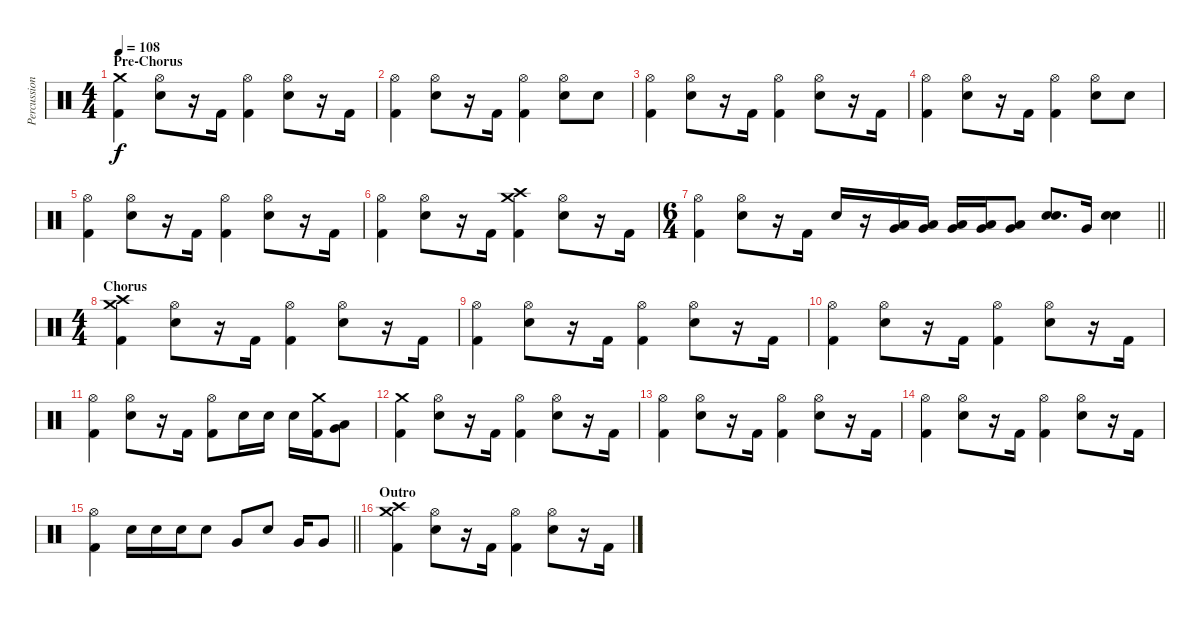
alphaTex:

\track ("Percussion" "Percussion") {instrument percussion}
\staff {score}
\articulation defaults
\ts (4 4)
\section ("" "Pre-Chorus")
\tempo 108
\clef neutral
\ks c
("Kick (hit) 2" "Crash medium (hit)").4{dy f} ("Hi-Hat (open)" "Snare (hit) 2").8 r.16 "Kick (hit) 2".16 ("Hi-Hat (open)" "Kick (hit) 2").4 ("Hi-Hat (open)" "Snare (hit) 2").8 r.16 "Kick (hit) 2".16 |
("Hi-Hat (open)" "Kick (hit) 2").4 ("Hi-Hat (open)" "Snare (hit) 2").8 r.16 "Kick (hit) 2".16 ("Hi-Hat (open)" "Kick (hit) 2").4 ("Hi-Hat (open)" "Snare (hit) 2").8 "Snare (hit) 2".8 |
("Hi-Hat (open)" "Kick (hit) 2").4 ("Hi-Hat (open)" "Snare (hit) 2").8 r.16 "Kick (hit) 2".16 ("Hi-Hat (open)" "Kick (hit) 2").4 ("Hi-Hat (open)" "Snare (hit) 2").8 r.16 "Kick (hit) 2".16 |
("Hi-Hat (open)" "Kick (hit) 2").4 ("Hi-Hat (open)" "Snare (hit) 2").8 r.16 "Kick (hit) 2".16 ("Hi-Hat (open)" "Kick (hit) 2").4 ("Hi-Hat (open)" "Snare (hit) 2").8 "Snare (hit) 2".8 |
("Hi-Hat (open)" "Kick (hit) 2").4 ("Hi-Hat (open)" "Snare (hit) 2").8 r.16 "Kick (hit) 2".16 ("Hi-Hat (open)" "Kick (hit) 2").4 ("Hi-Hat (open)" "Snare (hit) 2").8 r.16 "Kick (hit) 2".16 |
("Hi-Hat (open)" "Kick (hit) 2").4 ("Hi-Hat (open)" "Snare (hit) 2").8 r.16 "Kick (hit) 2".16 ("Kick (hit) 2" "Crash high (hit)" "Crash medium (hit)").4 ("Hi-Hat (open)" "Snare (hit) 2").8 r.16 "Kick (hit) 2".16 |
\ts (6 4)
\barLineRight lightlight
("Hi-Hat (open)" "Kick (hit) 2").4 ("Hi-Hat (open)" "Snare (hit) 2").8 r.16 "Kick (hit) 2".16 "Snare (hit) 2".16 r.16 ("Low Tom (hit)" "Very Low Tom (hit)").16 ("Low Tom (hit)" "Very Low Tom (hit)").16 ("Low Tom (hit)" "Very Low Tom (hit)").16 ("Low Tom (hit)" "Very Low Tom (hit)").16 ("Low Tom (hit)" "Very Low Tom (hit)").8 ("Snare (hit) 2" "Snare (hit) 2").8{d} "Very Low Tom (hit)".16 ("Snare (hit) 2" "Snare (hit) 2").4 |
\ts (4 4)
\section ("" "Chorus")
("Kick (hit) 2" "Crash medium (hit)" "Crash high (hit)").4 ("Hi-Hat (open)" "Snare (hit) 2").8 r.16 "Kick (hit) 2".16 ("Hi-Hat (open)" "Kick (hit) 2").4 ("Hi-Hat (open)" "Snare (hit) 2").8 r.16 "Kick (hit) 2".16 |
("Hi-Hat (open)" "Kick (hit) 2").4 ("Hi-Hat (open)" "Snare (hit) 2").8 r.16 "Kick (hit) 2".16 ("Hi-Hat (open)" "Kick (hit) 2").4 ("Hi-Hat (open)" "Snare (hit) 2").8 r.16 "Kick (hit) 2".16 |
("Hi-Hat (open)" "Kick (hit) 2").4 ("Hi-Hat (open)" "Snare (hit) 2").8 r.16 "Kick (hit) 2".16 ("Hi-Hat (open)" "Kick (hit) 2").4 ("Hi-Hat (open)" "Snare (hit) 2").8 r.16 "Kick (hit) 2".16 |
("Hi-Hat (open)" "Kick (hit) 2").4 ("Hi-Hat (open)" "Snare (hit) 2").8 r.16 "Kick (hit) 2".16 ("Hi-Hat (open)" "Kick (hit) 2").8 "Snare (hit) 2".16 "Snare (hit) 2".16 "Snare (hit) 2".16 ("Kick (hit) 2" "Crash medium (hit)").16 ("Very Low Tom (hit)" "Low Tom (hit)").8 |
("Kick (hit) 2" "Crash medium (hit)").4 ("Hi-Hat (open)" "Snare (hit) 2").8 r.16 "Kick (hit) 2".16 ("Hi-Hat (open)" "Kick (hit) 2").4 ("Hi-Hat (open)" "Snare (hit) 2").8 r.16 "Kick (hit) 2".16 |
("Hi-Hat (open)" "Kick (hit) 2").4 ("Hi-Hat (open)" "Snare (hit) 2").8 r.16 "Kick (hit) 2".16 ("Hi-Hat (open)" "Kick (hit) 2").4 ("Hi-Hat (open)" "Snare (hit) 2").8 r.16 "Kick (hit) 2".16 |
("Hi-Hat (open)" "Kick (hit) 2").4 ("Hi-Hat (open)" "Snare (hit) 2").8 r.16 "Kick (hit) 2".16 ("Hi-Hat (open)" "Kick (hit) 2").4 ("Hi-Hat (open)" "Snare (hit) 2").8 r.16 "Kick (hit) 2".16 |
\barLineRight lightlight
("Hi-Hat (open)" "Kick (hit) 2").4 "Snare (hit) 2".16 "Snare (hit) 2".16 "Snare (hit) 2".16 "Snare (hit) 2".8 "Very Low Tom (hit)".8 "Snare (hit) 2".8 "Very Low Tom (hit)".16 "Very Low Tom (hit)".8 |
\section ("" "Outro")
("Kick (hit) 2" "Crash medium (hit)" "Crash high (hit)").4 ("Hi-Hat (open)" "Snare (hit) 2").8 r.16 "Kick (hit) 2".16 ("Hi-Hat (open)" "Kick (hit) 2").4 ("Hi-Hat (open)" "Snare (hit) 2").8 r.16 "Kick (hit) 2".16
